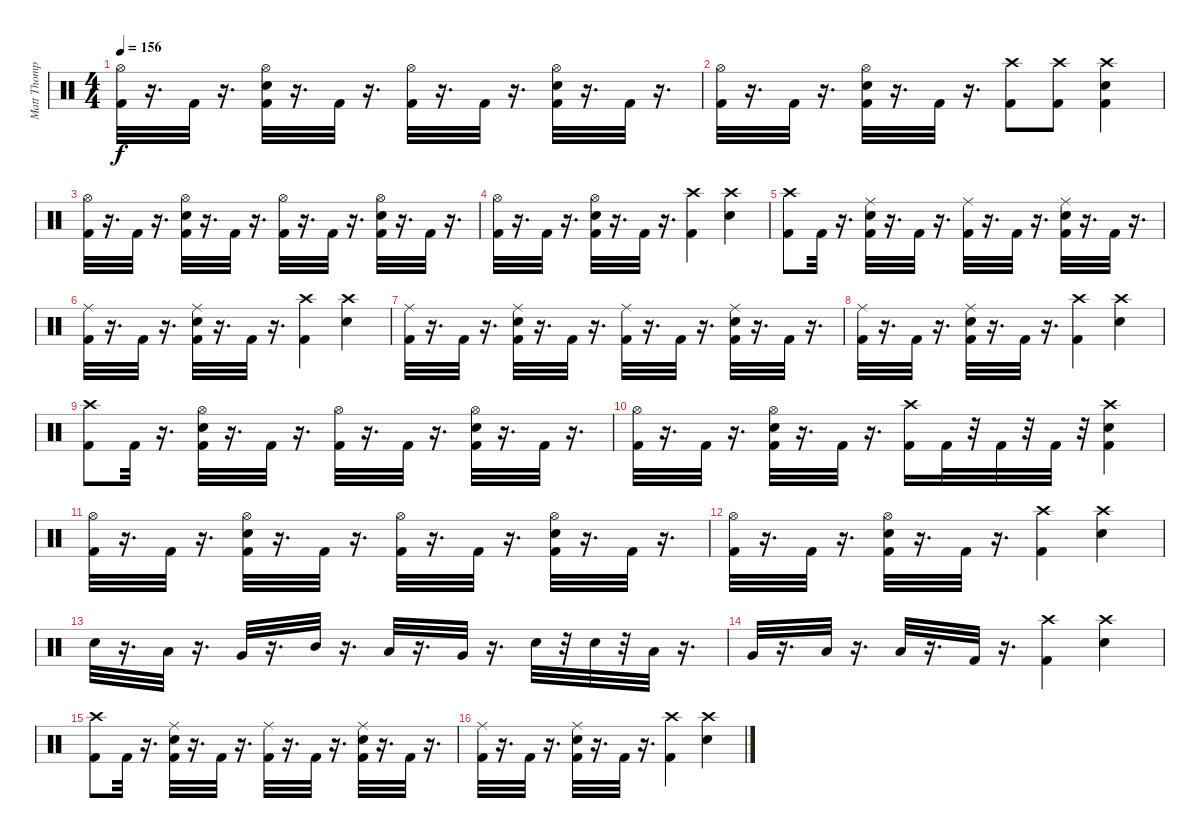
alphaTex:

\track ("Matt Thompson" "Matt Thomp") {instrument percussion}
\staff {score}
\articulation defaults
\ts (4 4)
\tempo 156
\clef neutral
\ks c
("Hi-Hat (open)" "Kick (hit) 2").32{dy f} r.16{d} "Kick (hit) 2".32 r.16{d} ("Snare (hit) 2" "Hi-Hat (open)" "Kick (hit) 2").32 r.16{d} "Kick (hit) 2".32 r.16{d} ("Hi-Hat (open)" "Kick (hit) 2").32 r.16{d} "Kick (hit) 2".32 r.16{d} ("Snare (hit) 2" "Hi-Hat (open)" "Kick (hit) 2").32 r.16{d} "Kick (hit) 2".32 r.16{d} |
("Hi-Hat (open)" "Kick (hit) 2").32 r.16{d} "Kick (hit) 2".32 r.16{d} ("Snare (hit) 2" "Hi-Hat (open)" "Kick (hit) 2").32 r.16{d} "Kick (hit) 2".32 r.16{d} ("Crash high (hit)" "Kick (hit) 2").8 ("Crash high (hit)" "Kick (hit) 2").8 ("Snare (hit) 2" "Crash high (hit)" "Kick (hit) 2").4 |
("Hi-Hat (open)" "Kick (hit) 2").32 r.16{d} "Kick (hit) 2".32 r.16{d} ("Snare (hit) 2" "Hi-Hat (open)" "Kick (hit) 2").32 r.16{d} "Kick (hit) 2".32 r.16{d} ("Hi-Hat (open)" "Kick (hit) 2").32 r.16{d} "Kick (hit) 2".32 r.16{d} ("Snare (hit) 2" "Hi-Hat (open)" "Kick (hit) 2").32 r.16{d} "Kick (hit) 2".32 r.16{d} |
("Hi-Hat (open)" "Kick (hit) 2").32 r.16{d} "Kick (hit) 2".32 r.16{d} ("Snare (hit) 2" "Hi-Hat (open)" "Kick (hit) 2").32 r.16{d} "Kick (hit) 2".32 r.16{d} ("Crash high (hit)" "Kick (hit) 2").4 ("Crash high (hit)" "Snare (hit) 2").4 |
("Crash high (hit)" "Kick (hit) 2").8 "Kick (hit) 2".32 r.16{d} ("Snare (hit) 2" "Ride (middle)" "Kick (hit) 2").32 r.16{d} "Kick (hit) 2".32 r.16{d} ("Ride (middle)" "Kick (hit) 2").32 r.16{d} "Kick (hit) 2".32 r.16{d} ("Snare (hit) 2" "Ride (middle)" "Kick (hit) 2").32 r.16{d} "Kick (hit) 2".32 r.16{d} |
("Ride (middle)" "Kick (hit) 2").32 r.16{d} "Kick (hit) 2".32 r.16{d} ("Snare (hit) 2" "Ride (middle)" "Kick (hit) 2").32 r.16{d} "Kick (hit) 2".32 r.16{d} ("Crash high (hit)" "Kick (hit) 2").4 ("Crash high (hit)" "Snare (hit) 2").4 |
("Ride (middle)" "Kick (hit) 2").32 r.16{d} "Kick (hit) 2".32 r.16{d} ("Snare (hit) 2" "Ride (middle)" "Kick (hit) 2").32 r.16{d} "Kick (hit) 2".32 r.16{d} ("Ride (middle)" "Kick (hit) 2").32 r.16{d} "Kick (hit) 2".32 r.16{d} ("Snare (hit) 2" "Ride (middle)" "Kick (hit) 2").32 r.16{d} "Kick (hit) 2".32 r.16{d} |
("Ride (middle)" "Kick (hit) 2").32 r.16{d} "Kick (hit) 2".32 r.16{d} ("Snare (hit) 2" "Ride (middle)" "Kick (hit) 2").32 r.16{d} "Kick (hit) 2".32 r.16{d} ("Crash high (hit)" "Kick (hit) 2").4 ("Crash high (hit)" "Snare (hit) 2").4 |
("Crash high (hit)" "Kick (hit) 2").8 "Kick (hit) 2".32 r.16{d} ("Snare (hit) 2" "Hi-Hat (open)" "Kick (hit) 2").32 r.16{d} "Kick (hit) 2".32 r.16{d} ("Hi-Hat (open)" "Kick (hit) 2").32 r.16{d} "Kick (hit) 2".32 r.16{d} ("Snare (hit) 2" "Hi-Hat (open)" "Kick (hit) 2").32 r.16{d} "Kick (hit) 2".32 r.16{d} |
("Hi-Hat (open)" "Kick (hit) 2").32 r.16{d} "Kick (hit) 2".32 r.16{d} ("Snare (hit) 2" "Hi-Hat (open)" "Kick (hit) 2").32 r.16{d} "Kick (hit) 2".32 r.16{d} ("Crash high (hit)" "Kick (hit) 2").16 "Kick (hit) 2".32 r.32 "Kick (hit) 2".32 r.32 "Kick (hit) 2".32 r.32 ("Snare (hit) 2" "Crash high (hit)" "Kick (hit) 2").4 |
("Hi-Hat (open)" "Kick (hit) 2").32 r.16{d} "Kick (hit) 2".32 r.16{d} ("Snare (hit) 2" "Hi-Hat (open)" "Kick (hit) 2").32 r.16{d} "Kick (hit) 2".32 r.16{d} ("Hi-Hat (open)" "Kick (hit) 2").32 r.16{d} "Kick (hit) 2".32 r.16{d} ("Snare (hit) 2" "Hi-Hat (open)" "Kick (hit) 2").32 r.16{d} "Kick (hit) 2".32 r.16{d} |
("Hi-Hat (open)" "Kick (hit) 2").32 r.16{d} "Kick (hit) 2".32 r.16{d} ("Snare (hit) 2" "Hi-Hat (open)" "Kick (hit) 2").32 r.16{d} "Kick (hit) 2".32 r.16{d} ("Crash high (hit)" "Kick (hit) 2").4 ("Crash high (hit)" "Snare (hit) 2").4 |
"Snare (hit) 2".32 r.16{d} "Low Tom (hit)".32 r.16{d} "Very Low Tom (hit)".32 r.16{d} "Mid Tom (hit)".32 r.16{d} "Low Tom (hit)".32 r.16{d} "Very Low Tom (hit)".32 r.16{d} "Snare (hit) 2".32 r.32 "Snare (hit) 2".32 r.32 "Low Tom (hit)".32 r.16{d} |
"Very Low Tom (hit)".32 r.16{d} "Low Floor Tom (hit)".32 r.16{d} "Low Floor Tom (hit)".32 r.16{d} "Kick (hit) 2".32 r.16{d} ("Crash high (hit)" "Kick (hit) 2").4 ("Crash high (hit)" "Snare (hit) 2").4 |
("Kick (hit) 2" "Crash high (hit)").8 "Kick (hit) 2".32 r.16{d} ("Ride (middle)" "Snare (hit) 2" "Kick (hit) 2").32 r.16{d} "Kick (hit) 2".32 r.16{d} ("Ride (middle)" "Kick (hit) 2").32 r.16{d} "Kick (hit) 2".32 r.16{d} ("Ride (middle)" "Snare (hit) 2" "Kick (hit) 2").32 r.16{d} "Kick (hit) 2".32 r.16{d} |
("Ride (middle)" "Kick (hit) 2").32 r.16{d} "Kick (hit) 2".32 r.16{d} ("Ride (middle)" "Snare (hit) 2" "Kick (hit) 2").32 r.16{d} "Kick (hit) 2".32 r.16{d} ("Kick (hit) 2" "Crash high (hit)").4 ("Snare (hit) 2" "Crash high (hit)").4
